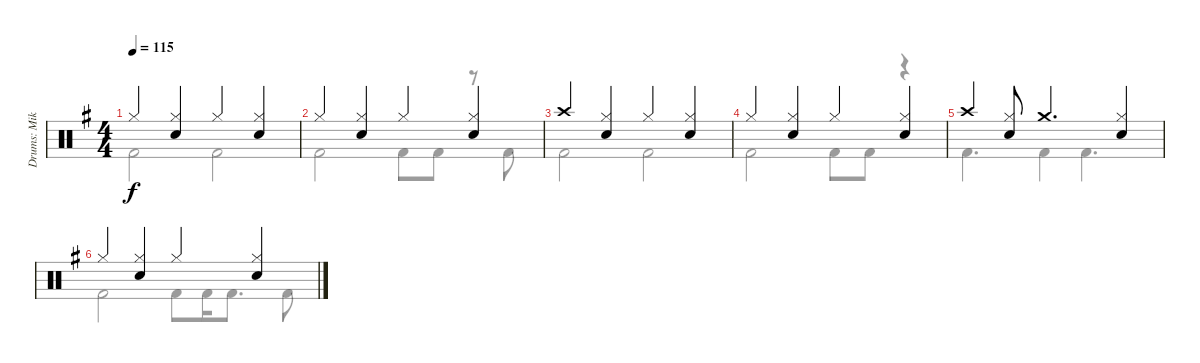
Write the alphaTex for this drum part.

\track ("Drums: Mikkey" "Drums: Mik") {instrument percussion}
\staff {score}
\articulation defaults
\voice
\ts (4 4)
\tempo 115
\clef neutral
\ks g "Hi-Hat (closed)".4{dy f}
("Hi-Hat (closed)" "Snare (hit) 2").4 "Hi-Hat (closed)".4 ("Hi-Hat (closed)" "Snare (hit) 2").4 |
"Hi-Hat (closed)".4 ("Hi-Hat (closed)" "Snare (hit) 2").4 "Hi-Hat (closed)".4 ("Hi-Hat (closed)" "Snare (hit) 2").4 |
"Crash high (hit)".4 ("Hi-Hat (closed)" "Snare (hit) 2").4 "Hi-Hat (closed)".4 ("Hi-Hat (closed)" "Snare (hit) 2").4 |
"Hi-Hat (closed)".4 ("Hi-Hat (closed)" "Snare (hit) 2").4 "Hi-Hat (closed)".4 ("Hi-Hat (closed)" "Snare (hit) 2").4 |
"Crash high (hit)".4 ("Hi-Hat (closed)" "Snare (hit) 2").8 "Crash medium (hit)".4{d} ("Hi-Hat (closed)" "Snare (hit) 2").4 |
"Hi-Hat (closed)".4 ("Hi-Hat (closed)" "Snare (hit) 2").4 "Hi-Hat (closed)".4 ("Hi-Hat (closed)" "Snare (hit) 2").4
\voice
\clef neutral
\ottava regular
\simile none
\ks g "Kick (hit) 2".2{dy f} "Kick (hit) 2".2
|
"Kick (hit) 2".2 "Kick (hit) 2".8 "Kick (hit) 2".8 r.8 "Kick (hit) 2".8 |
"Kick (hit) 2".2 "Kick (hit) 2".2 |
"Kick (hit) 2".2 "Kick (hit) 2".8 "Kick (hit) 2".8 r.4 |
"Kick (hit) 2".4{d} "Kick (hit) 2".4 "Kick (hit) 2".4{d} |
"Kick (hit) 2".2 "Kick (hit) 2".8 "Kick (hit) 2".16 "Kick (hit) 2".8{d} "Kick (hit) 2".8
